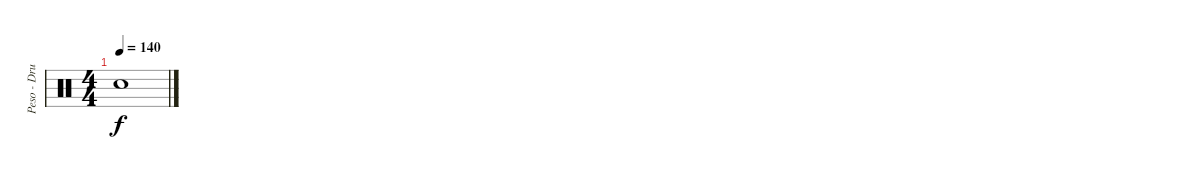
\track ("Peso - Drums" "Peso - Dru") {instrument percussion}
\staff {score}
\articulation defaults
\ts (4 4)
\tempo 140
\clef neutral
\ks c "Snare (hit)"{t}.1{dy f}
